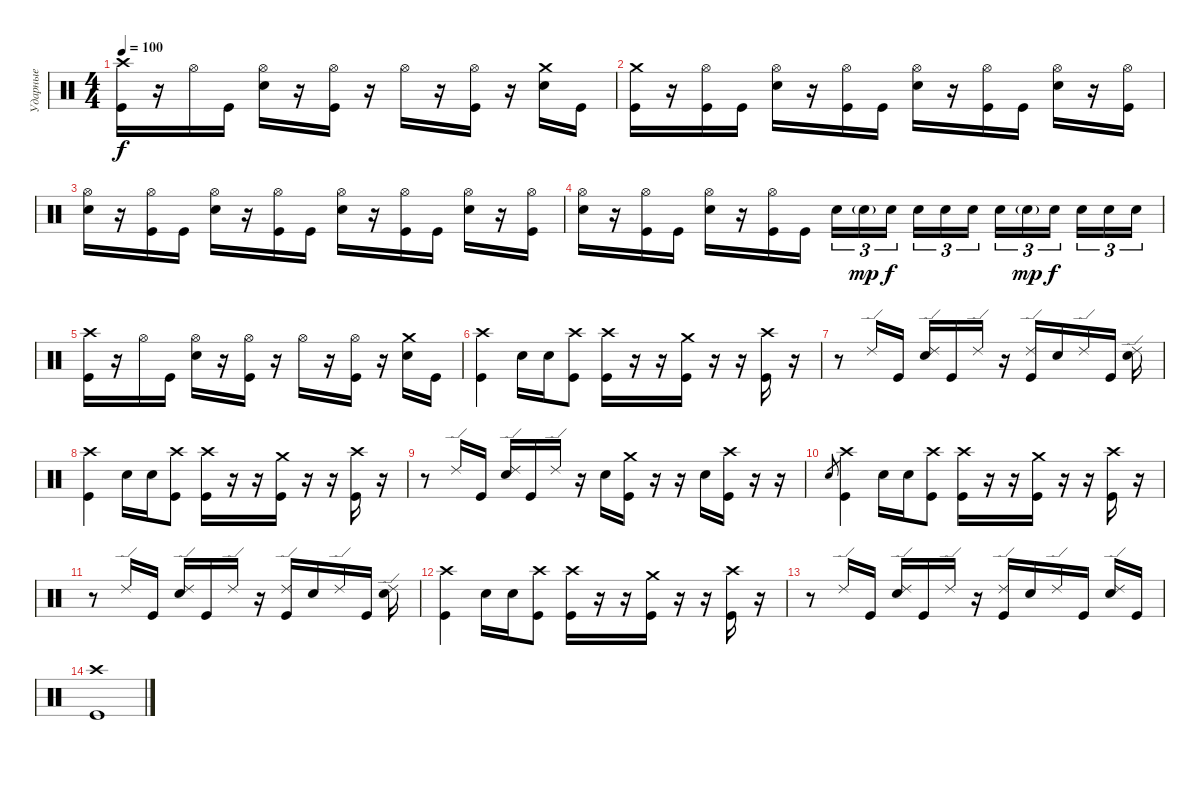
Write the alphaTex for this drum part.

\track ("Ударные" "Ударные") {instrument percussion}
\staff {score}
\articulation defaults
\ts (4 4)
\tempo 100
\clef neutral
\ks c
("Crash high (hit)" "Kick (hit)").16{dy f} r.16 "Hi-Hat (open)".16 "Kick (hit)".16 ("Hi-Hat (open)" "Electric Snare (hit)").16 r.16 ("Hi-Hat (open)" "Kick (hit)").16 r.16 "Hi-Hat (open)".16 r.16 ("Hi-Hat (open)" "Kick (hit)").16 r.16 ("Crash medium (hit)" "Electric Snare (hit)").16 "Kick (hit)".16 |
("Crash medium (hit)" "Kick (hit)").16 r.16 ("Hi-Hat (open)" "Kick (hit)").16 "Kick (hit)".16 ("Hi-Hat (open)" "Electric Snare (hit)").16 r.16 ("Hi-Hat (open)" "Kick (hit)").16 "Kick (hit)".16 ("Hi-Hat (open)" "Electric Snare (hit)").16 r.16 ("Hi-Hat (open)" "Kick (hit)").16 "Kick (hit)".16 ("Hi-Hat (open)" "Electric Snare (hit)").16 r.16 ("Hi-Hat (open)" "Kick (hit)").16 |
("Hi-Hat (open)" "Electric Snare (hit)").16 r.16 ("Hi-Hat (open)" "Kick (hit)").16 "Kick (hit)".16 ("Hi-Hat (open)" "Electric Snare (hit)").16 r.16 ("Hi-Hat (open)" "Kick (hit)").16 "Kick (hit)".16 ("Hi-Hat (open)" "Electric Snare (hit)").16 r.16 ("Hi-Hat (open)" "Kick (hit)").16 "Kick (hit)".16 ("Hi-Hat (open)" "Electric Snare (hit)").16 r.16 ("Hi-Hat (open)" "Kick (hit)").16 |
("Hi-Hat (open)" "Electric Snare (hit)").16 r.16 ("Hi-Hat (open)" "Kick (hit)").16 "Kick (hit)".16 ("Hi-Hat (open)" "Electric Snare (hit)").16 r.16 ("Hi-Hat (open)" "Kick (hit)").16 "Kick (hit)".16 "Electric Snare (hit)".16{tu (3 2)} "Electric Snare (hit)"{g}.16{tu (3 2) dy mp} "Electric Snare (hit)".16{tu (3 2) dy f beam splitsecondary} "Electric Snare (hit)".16{tu (3 2)} "Electric Snare (hit)".16{tu (3 2)} "Electric Snare (hit)".16{tu (3 2)} "Electric Snare (hit)".16{tu (3 2)} "Electric Snare (hit)"{g}.16{tu (3 2) dy mp} "Electric Snare (hit)".16{tu (3 2) dy f beam splitsecondary} "Electric Snare (hit)".16{tu (3 2)} "Electric Snare (hit)".16{tu (3 2)} "Electric Snare (hit)".16{tu (3 2)} |
("Crash high (hit)" "Kick (hit)").16 r.16 "Hi-Hat (open)".16 "Kick (hit)".16 ("Hi-Hat (open)" "Electric Snare (hit)").16 r.16 ("Hi-Hat (open)" "Kick (hit)").16 r.16 "Hi-Hat (open)".16 r.16 ("Hi-Hat (open)" "Kick (hit)").16 r.16 ("Crash medium (hit)" "Electric Snare (hit)").16 "Kick (hit)".16 |
("Crash high (hit)" "Kick (hit)").4 "Electric Snare (hit)".16 "Electric Snare (hit)".16 ("Crash high (hit)" "Kick (hit)").8 ("Crash high (hit)" "Kick (hit)").16 r.16 r.16 ("Crash medium (hit)" "Kick (hit)").16 r.16 r.16 ("Crash high (hit)" "Kick (hit)").16 r.16 |
r.8 "Ride (edge) 2".16 "Kick (hit)".16 ("Ride (edge) 2" "Electric Snare (hit)").16 "Kick (hit)".16 "Ride (edge) 2".16 r.16 ("Ride (edge) 2" "Kick (hit)").16 "Electric Snare (hit)".16 "Ride (edge) 2".16 "Kick (hit)".16 ("Ride (edge) 2" "Electric Snare (hit)").16 |
("Crash high (hit)" "Kick (hit)").4 "Electric Snare (hit)".16 "Electric Snare (hit)".16 ("Crash high (hit)" "Kick (hit)").8 ("Crash high (hit)" "Kick (hit)").16 r.16 r.16 ("Crash medium (hit)" "Kick (hit)").16 r.16 r.16 ("Crash high (hit)" "Kick (hit)").16 r.16 |
r.8 "Ride (edge) 2".16 "Kick (hit)".16 ("Ride (edge) 2" "Electric Snare (hit)").16 "Kick (hit)".16 "Ride (edge) 2".16 r.16 "Electric Snare (hit)".16 ("Crash medium (hit)" "Kick (hit)").16 r.16 r.16 "Electric Snare (hit)".16 ("Crash high (hit)" "Kick (hit)").16 r.16 r.16 |
"Electric Snare (hit)".8{gr} ("Crash high (hit)" "Kick (hit)").4 "Electric Snare (hit)".16 "Electric Snare (hit)".16 ("Crash high (hit)" "Kick (hit)").8 ("Crash high (hit)" "Kick (hit)").16 r.16 r.16 ("Crash medium (hit)" "Kick (hit)").16 r.16 r.16 ("Crash high (hit)" "Kick (hit)").16 r.16 |
r.8 "Ride (edge) 2".16 "Kick (hit)".16 ("Ride (edge) 2" "Electric Snare (hit)").16 "Kick (hit)".16 "Ride (edge) 2".16 r.16 ("Ride (edge) 2" "Kick (hit)").16 "Electric Snare (hit)".16 "Ride (edge) 2".16 "Kick (hit)".16 ("Ride (edge) 2" "Electric Snare (hit)").16 |
("Crash high (hit)" "Kick (hit)").4 "Electric Snare (hit)".16 "Electric Snare (hit)".16 ("Crash high (hit)" "Kick (hit)").8 ("Crash high (hit)" "Kick (hit)").16 r.16 r.16 ("Crash medium (hit)" "Kick (hit)").16 r.16 r.16 ("Crash high (hit)" "Kick (hit)").16 r.16 |
r.8 "Ride (edge) 2".16 "Kick (hit)".16 ("Ride (edge) 2" "Electric Snare (hit)").16 "Kick (hit)".16 "Ride (edge) 2".16 r.16 ("Ride (edge) 2" "Kick (hit)").16 "Electric Snare (hit)".16 "Ride (edge) 2".16 "Kick (hit)".16 ("Ride (edge) 2" "Electric Snare (hit)").16 "Kick (hit)".16 |
("Crash high (hit)" "Kick (hit)").1
